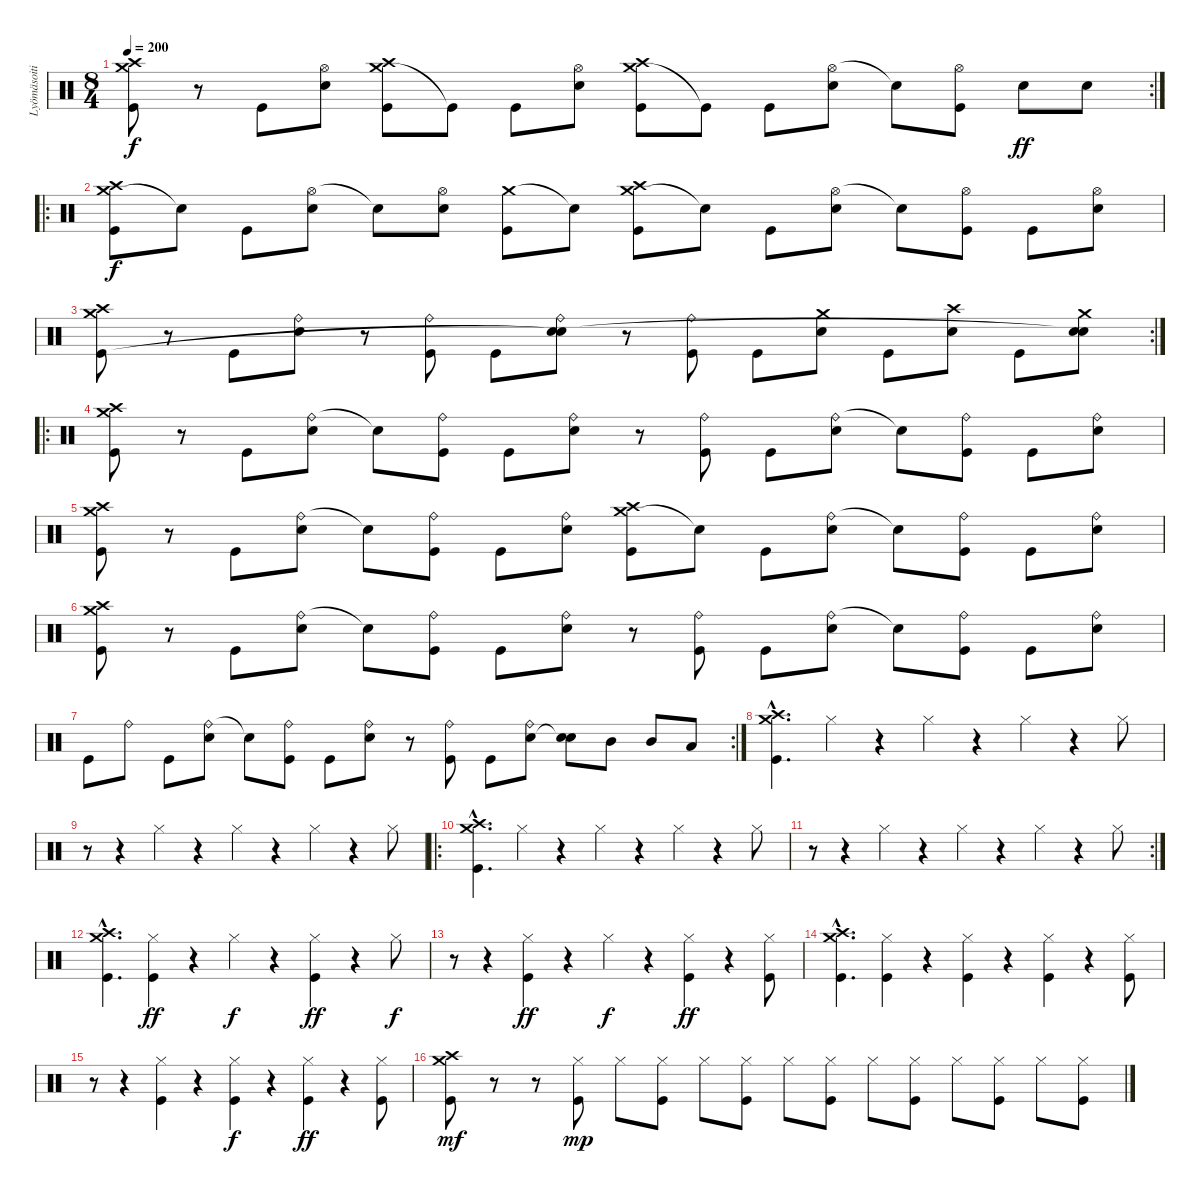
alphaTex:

\track ("Lyömäsoitin" "Lyömäsoiti") {instrument percussion}
\staff {score}
\articulation defaults
\rc 2
\ts (8 4)
\tempo 200
\clef neutral
\ks c
("Crash medium (hit)" "Crash high (hit)" "Kick (hit)").8{dy f} r.8 "Kick (hit)".8 ("Hi-Hat (open)" "Snare (hit) 2").8 ("Crash medium (hit)" "Crash high (hit)" "Kick (hit)").8 "Kick (hit)"{t}.8 "Kick (hit)".8 ("Hi-Hat (open)" "Snare (hit) 2").8 ("Crash medium (hit)" "Crash high (hit)" "Kick (hit)").8 "Kick (hit)"{t}.8 "Kick (hit)".8 ("Hi-Hat (open)" "Snare (hit) 2").8 "Snare (hit)"{t}.8 ("Hi-Hat (open)" "Kick (hit)").8 "Snare (hit) 2".8{dy ff} "Snare (hit) 2".8 |
\ro
("Crash medium (hit)" "Crash high (hit)" "Kick (hit)").8{dy f} "Snare (hit)"{t}.8 "Kick (hit)".8 ("Hi-Hat (open)" "Snare (hit) 2").8 "Snare (hit)"{t}.8 ("Hi-Hat (open)" "Snare (hit) 2").8 ("Crash medium (hit)" "Kick (hit)").8 "Snare (hit)"{t}.8 ("Crash medium (hit)" "Crash high (hit)" "Kick (hit)").8 "Snare (hit)"{t}.8 "Kick (hit)".8 ("Hi-Hat (open)" "Snare (hit) 2").8 "Snare (hit)"{t}.8 ("Hi-Hat (open)" "Kick (hit)").8 "Kick (hit)".8 ("Hi-Hat (open)" "Snare (hit) 2").8 |
\rc 2
("Crash medium (hit)" "Crash high (hit)" "Kick (hit)").8 r.8 "Kick (hit)".8 ("Ride (bell)" "Snare (hit) 2").8 r.8 ("Ride (bell)" "Kick (hit)").8 "Kick (hit)".8 ("Ride (bell)" "Snare (hit) 2" "Snare (hit)"{t}).8 r.8 ("Ride (bell)" "Kick (hit)").8 "Kick (hit)".8 ("Crash medium (hit)" "Snare (hit) 2").8 "Kick (hit)".8 ("Crash high (hit)" "Snare (hit) 2").8 "Kick (hit)".8 ("Crash medium (hit)" "Snare (hit) 2" "Snare (hit)"{t}).8 |
\ro
("Crash medium (hit)" "Crash high (hit)" "Kick (hit)").8 r.8 "Kick (hit)".8 ("Ride (bell)" "Snare (hit) 2").8 "Snare (hit)"{t}.8 ("Ride (bell)" "Kick (hit)").8 "Kick (hit)".8 ("Ride (bell)" "Snare (hit) 2").8 r.8 ("Ride (bell)" "Kick (hit)").8 "Kick (hit)".8 ("Ride (bell)" "Snare (hit) 2").8 "Snare (hit)"{t}.8 ("Ride (bell)" "Kick (hit)").8 "Kick (hit)".8 ("Ride (bell)" "Snare (hit) 2").8 |
("Crash medium (hit)" "Crash high (hit)" "Kick (hit)").8 r.8 "Kick (hit)".8 ("Ride (bell)" "Snare (hit) 2").8 "Snare (hit)"{t}.8 ("Ride (bell)" "Kick (hit)").8 "Kick (hit)".8 ("Ride (bell)" "Snare (hit) 2").8 ("Crash medium (hit)" "Crash high (hit)" "Kick (hit)").8 "Snare (hit)"{t}.8 "Kick (hit)".8 ("Ride (bell)" "Snare (hit) 2").8 "Snare (hit)"{t}.8 ("Ride (bell)" "Kick (hit)").8 "Kick (hit)".8 ("Ride (bell)" "Snare (hit) 2").8 |
("Crash medium (hit)" "Crash high (hit)" "Kick (hit)").8 r.8 "Kick (hit)".8 ("Ride (bell)" "Snare (hit) 2").8 "Snare (hit)"{t}.8 ("Ride (bell)" "Kick (hit)").8 "Kick (hit)".8 ("Ride (bell)" "Snare (hit) 2").8 r.8 ("Ride (bell)" "Kick (hit)").8 "Kick (hit)".8 ("Ride (bell)" "Snare (hit) 2").8 "Snare (hit)"{t}.8 ("Ride (bell)" "Kick (hit)").8 "Kick (hit)".8 ("Ride (bell)" "Snare (hit) 2").8 |
\rc 2 "Kick (hit)".8 "Ride (bell)".8 "Kick (hit)".8
("Ride (bell)" "Snare (hit) 2").8 "Snare (hit)"{t}.8 ("Ride (bell)" "Kick (hit)").8 "Kick (hit)".8 ("Ride (bell)" "Snare (hit) 2").8 r.8 ("Ride (bell)" "Kick (hit)").8 "Kick (hit)".8 ("Ride (bell)" "Snare (hit) 2").8 ("Snare (hit) 2" "Snare (hit)"{t}).8 "Mid Tom (hit)".8 "Mid Tom (hit)".8 "Low Tom (hit)".8 |
("Crash medium (hit)"{hac} "Crash high (hit)"{hac} "Kick (hit)"{hac}).4{d} "Hi-Hat (closed)".4 r.4 "Hi-Hat (closed)".4 r.4 "Hi-Hat (closed)".4 r.4 "Hi-Hat (closed)".8 |
r.8 r.4 "Hi-Hat (closed)".4 r.4 "Hi-Hat (closed)".4 r.4 "Hi-Hat (closed)".4 r.4 "Hi-Hat (closed)".8 |
\ro
("Crash medium (hit)"{hac} "Crash high (hit)"{hac} "Kick (hit)"{hac}).4{d} "Hi-Hat (closed)".4 r.4 "Hi-Hat (closed)".4 r.4 "Hi-Hat (closed)".4 r.4 "Hi-Hat (closed)".8 |
\rc 2
r.8 r.4 "Hi-Hat (closed)".4 r.4 "Hi-Hat (closed)".4 r.4 "Hi-Hat (closed)".4 r.4 "Hi-Hat (closed)".8 |
("Crash medium (hit)"{hac} "Crash high (hit)"{hac} "Kick (hit)"{hac}).4{d} ("Hi-Hat (closed)" "Kick (hit)").4{dy ff} r.4 "Hi-Hat (closed)".4{dy f} r.4 ("Hi-Hat (closed)" "Kick (hit)").4{dy ff} r.4 "Hi-Hat (closed)".8{dy f} |
r.8 r.4 ("Hi-Hat (closed)" "Kick (hit)").4{dy ff} r.4 "Hi-Hat (closed)".4{dy f} r.4 ("Hi-Hat (closed)" "Kick (hit)").4{dy ff} r.4 ("Hi-Hat (closed)" "Kick (hit)").8 |
("Crash medium (hit)"{hac} "Crash high (hit)"{hac} "Kick (hit)"{hac}).4{d} ("Hi-Hat (closed)" "Kick (hit)").4 r.4 ("Hi-Hat (closed)" "Kick (hit)").4 r.4 ("Hi-Hat (closed)" "Kick (hit)").4 r.4 ("Hi-Hat (closed)" "Kick (hit)").8 |
r.8 r.4 ("Hi-Hat (closed)" "Kick (hit)").4 r.4 ("Hi-Hat (closed)" "Kick (hit)").4{dy f} r.4 ("Hi-Hat (closed)" "Kick (hit)").4{dy ff} r.4 ("Hi-Hat (closed)" "Kick (hit)").8 |
("Crash medium (hit)" "Crash high (hit)" "Kick (hit)").8{dy mf} r.8 r.8 ("Hi-Hat (closed)" "Kick (hit)").8{dy mp} "Hi-Hat (closed)".8 ("Hi-Hat (closed)" "Kick (hit)").8 "Hi-Hat (closed)".8 ("Hi-Hat (closed)" "Kick (hit)").8 "Hi-Hat (closed)".8 ("Hi-Hat (closed)" "Kick (hit)").8 "Hi-Hat (closed)".8 ("Hi-Hat (closed)" "Kick (hit)").8 "Hi-Hat (closed)".8 ("Hi-Hat (closed)" "Kick (hit)").8 "Hi-Hat (closed)".8 ("Hi-Hat (closed)" "Kick (hit)").8
